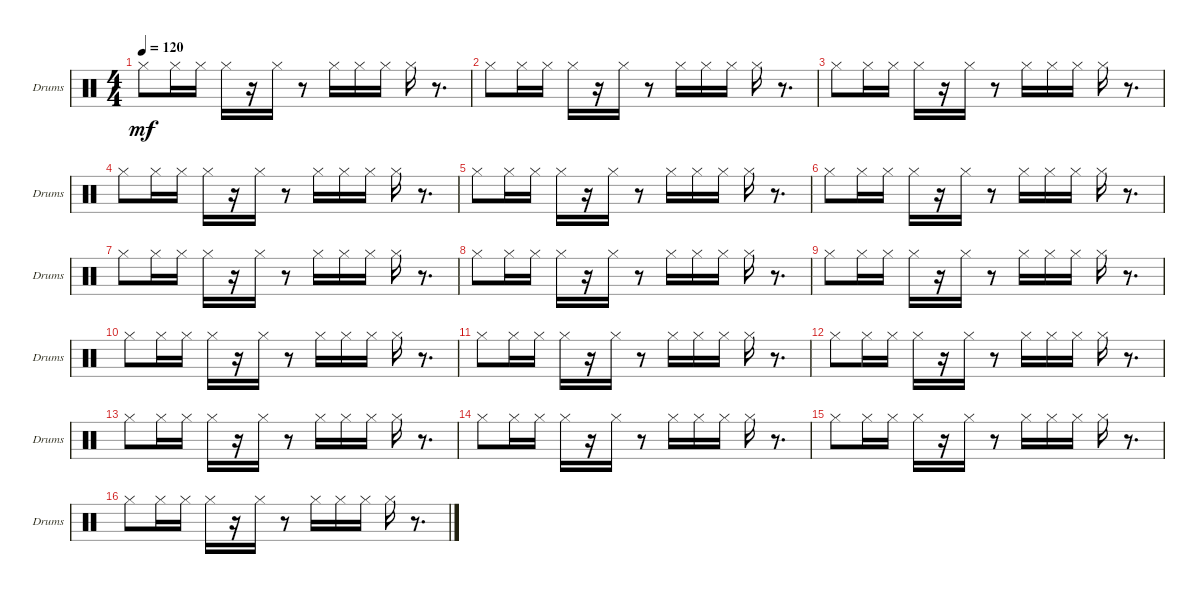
\bracketExtendMode groupsimilarinstruments
\singleTrackTrackNamePolicy allsystems
\multiTrackTrackNamePolicy allsystems
\firstSystemTrackNameOrientation horizontal
\otherSystemsTrackNameOrientation horizontal
\track ("Drum hihat" "Drums") {instrument percussion}
\staff {score}
\articulation defaults
\ts (4 4)
\tempo 120
\clef neutral
\scale
1.11349
\ks c "Hi-Hat (closed)".8{dy mf} "Hi-Hat (closed)".16 "Hi-Hat (closed)".16 "Hi-Hat (closed)".16
r.16 "Hi-Hat (closed)".16 r.8 "Hi-Hat (closed)".16 "Hi-Hat (closed)".16 "Hi-Hat (closed)".16 "Hi-Hat (closed)".16 r.8{d} |
\scale
0.943253 "Hi-Hat (closed)".8 "Hi-Hat (closed)".16 "Hi-Hat (closed)".16 "Hi-Hat (closed)".16 r.16 "Hi-Hat (closed)".16 r.8 "Hi-Hat (closed)".16 "Hi-Hat (closed)".16 "Hi-Hat (closed)".16 "Hi-Hat (closed)".16 r.8{d} |
\scale
0.943253 "Hi-Hat (closed)".8 "Hi-Hat (closed)".16 "Hi-Hat (closed)".16 "Hi-Hat (closed)".16 r.16 "Hi-Hat (closed)".16 r.8 "Hi-Hat (closed)".16 "Hi-Hat (closed)".16 "Hi-Hat (closed)".16 "Hi-Hat (closed)".16 r.8{d} |
\scale
1.05296 "Hi-Hat (closed)".8 "Hi-Hat (closed)".16 "Hi-Hat (closed)".16 "Hi-Hat (closed)".16 r.16 "Hi-Hat (closed)".16 r.8 "Hi-Hat (closed)".16 "Hi-Hat (closed)".16 "Hi-Hat (closed)".16 "Hi-Hat (closed)".16 r.8{d} |
\scale
0.973518 "Hi-Hat (closed)".8 "Hi-Hat (closed)".16 "Hi-Hat (closed)".16 "Hi-Hat (closed)".16 r.16 "Hi-Hat (closed)".16 r.8 "Hi-Hat (closed)".16 "Hi-Hat (closed)".16 "Hi-Hat (closed)".16 "Hi-Hat (closed)".16 r.8{d} |
\scale
0.973518 "Hi-Hat (closed)".8 "Hi-Hat (closed)".16 "Hi-Hat (closed)".16 "Hi-Hat (closed)".16 r.16 "Hi-Hat (closed)".16 r.8 "Hi-Hat (closed)".16 "Hi-Hat (closed)".16 "Hi-Hat (closed)".16 "Hi-Hat (closed)".16 r.8{d} |
\scale
1.05296 "Hi-Hat (closed)".8 "Hi-Hat (closed)".16 "Hi-Hat (closed)".16 "Hi-Hat (closed)".16 r.16 "Hi-Hat (closed)".16 r.8 "Hi-Hat (closed)".16 "Hi-Hat (closed)".16 "Hi-Hat (closed)".16 "Hi-Hat (closed)".16 r.8{d} |
\scale
0.973518 "Hi-Hat (closed)".8 "Hi-Hat (closed)".16 "Hi-Hat (closed)".16 "Hi-Hat (closed)".16 r.16 "Hi-Hat (closed)".16 r.8 "Hi-Hat (closed)".16 "Hi-Hat (closed)".16 "Hi-Hat (closed)".16 "Hi-Hat (closed)".16 r.8{d} |
\scale
0.973518 "Hi-Hat (closed)".8 "Hi-Hat (closed)".16 "Hi-Hat (closed)".16 "Hi-Hat (closed)".16 r.16 "Hi-Hat (closed)".16 r.8 "Hi-Hat (closed)".16 "Hi-Hat (closed)".16 "Hi-Hat (closed)".16 "Hi-Hat (closed)".16 r.8{d} |
\scale
1.05296 "Hi-Hat (closed)".8 "Hi-Hat (closed)".16 "Hi-Hat (closed)".16 "Hi-Hat (closed)".16 r.16 "Hi-Hat (closed)".16 r.8 "Hi-Hat (closed)".16 "Hi-Hat (closed)".16 "Hi-Hat (closed)".16 "Hi-Hat (closed)".16 r.8{d} |
\scale
0.973518 "Hi-Hat (closed)".8 "Hi-Hat (closed)".16 "Hi-Hat (closed)".16 "Hi-Hat (closed)".16 r.16 "Hi-Hat (closed)".16 r.8 "Hi-Hat (closed)".16 "Hi-Hat (closed)".16 "Hi-Hat (closed)".16 "Hi-Hat (closed)".16 r.8{d} |
\scale
0.973518 "Hi-Hat (closed)".8 "Hi-Hat (closed)".16 "Hi-Hat (closed)".16 "Hi-Hat (closed)".16 r.16 "Hi-Hat (closed)".16 r.8 "Hi-Hat (closed)".16 "Hi-Hat (closed)".16 "Hi-Hat (closed)".16 "Hi-Hat (closed)".16 r.8{d} |
\scale
1.05296 "Hi-Hat (closed)".8 "Hi-Hat (closed)".16 "Hi-Hat (closed)".16 "Hi-Hat (closed)".16 r.16 "Hi-Hat (closed)".16 r.8 "Hi-Hat (closed)".16 "Hi-Hat (closed)".16 "Hi-Hat (closed)".16 "Hi-Hat (closed)".16 r.8{d} |
\scale
0.973518 "Hi-Hat (closed)".8 "Hi-Hat (closed)".16 "Hi-Hat (closed)".16 "Hi-Hat (closed)".16 r.16 "Hi-Hat (closed)".16 r.8 "Hi-Hat (closed)".16 "Hi-Hat (closed)".16 "Hi-Hat (closed)".16 "Hi-Hat (closed)".16 r.8{d} |
\scale
0.973518 "Hi-Hat (closed)".8 "Hi-Hat (closed)".16 "Hi-Hat (closed)".16 "Hi-Hat (closed)".16 r.16 "Hi-Hat (closed)".16 r.8 "Hi-Hat (closed)".16 "Hi-Hat (closed)".16 "Hi-Hat (closed)".16 "Hi-Hat (closed)".16 r.8{d} |
\scale
1.05296 "Hi-Hat (closed)".8 "Hi-Hat (closed)".16 "Hi-Hat (closed)".16 "Hi-Hat (closed)".16 r.16 "Hi-Hat (closed)".16 r.8 "Hi-Hat (closed)".16 "Hi-Hat (closed)".16 "Hi-Hat (closed)".16 "Hi-Hat (closed)".16 r.8{d}
